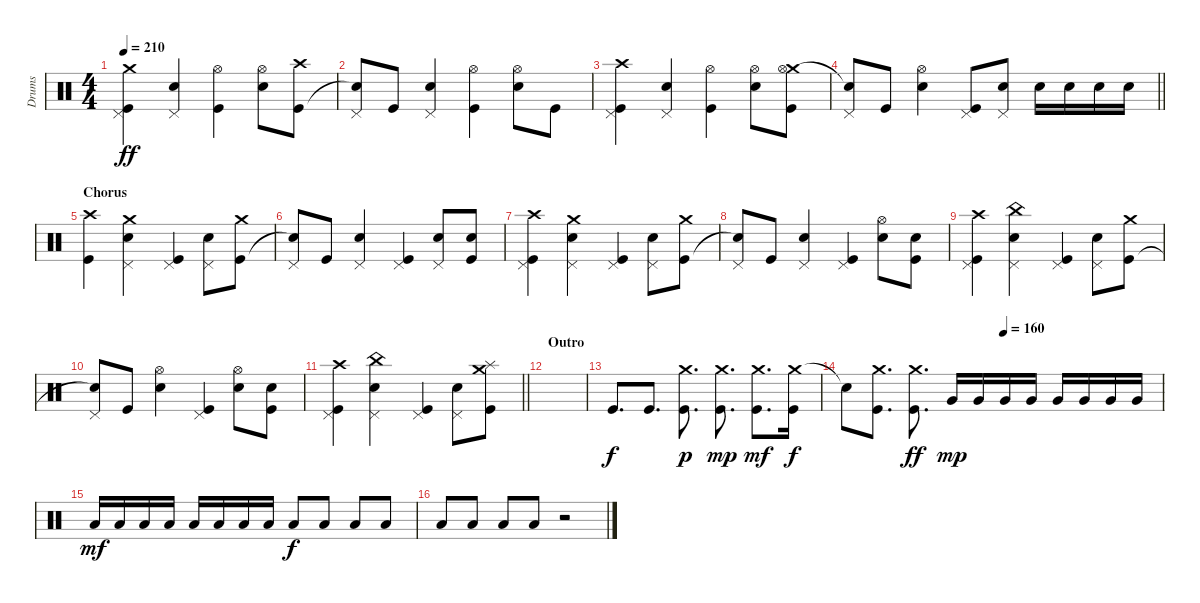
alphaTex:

\track ("Drums" "Drums") {instrument percussion}
\staff {score}
\articulation defaults
\ts (4 4)
\tempo 210
\clef neutral
\ks c
("Crash medium (hit)" "Pedal Hi-Hat (hit)" "Kick (hit)").4{dy ff} ("Electric Snare (hit)" "Pedal Hi-Hat (hit)").4 ("Hi-Hat (open)" "Kick (hit)").4 ("Electric Snare (hit)" "Hi-Hat (open)").8 ("Crash high (hit)" "Kick (hit)").8 |
("Pedal Hi-Hat (hit)" "Snare (hit)"{t}).8 "Kick (hit)".8 ("Electric Snare (hit)" "Pedal Hi-Hat (hit)").4 ("Hi-Hat (open)" "Kick (hit)").4 ("Electric Snare (hit)" "Hi-Hat (open)").8 "Kick (hit)".8 |
("Crash high (hit)" "Pedal Hi-Hat (hit)" "Kick (hit)").4 ("Electric Snare (hit)" "Pedal Hi-Hat (hit)").4 ("Hi-Hat (open)" "Kick (hit)").4 ("Electric Snare (hit)" "Hi-Hat (open)").8 ("Crash medium (hit)" "Hi-Hat (open)" "Kick (hit)").8 |
\barLineRight lightlight
("Pedal Hi-Hat (hit)" "Snare (hit)"{t}).8 "Kick (hit)".8 ("Electric Snare (hit)" "Hi-Hat (open)").4 ("Pedal Hi-Hat (hit)" "Kick (hit)").8 ("Electric Snare (hit)" "Pedal Hi-Hat (hit)").8 "Electric Snare (hit)".16 "Electric Snare (hit)".16 "Electric Snare (hit)".16 "Electric Snare (hit)".16 |
\section ("" "Chorus")
("Crash high (hit)" "Kick (hit)").4 ("Crash medium (hit)" "Electric Snare (hit)" "Pedal Hi-Hat (hit)").4 ("Pedal Hi-Hat (hit)" "Kick (hit)").4 ("Electric Snare (hit)" "Pedal Hi-Hat (hit)").8 ("Crash medium (hit)" "Kick (hit)").8 |
("Pedal Hi-Hat (hit)" "Snare (hit)"{t}).8 "Kick (hit)".8 ("Electric Snare (hit)" "Pedal Hi-Hat (hit)").4 ("Pedal Hi-Hat (hit)" "Kick (hit)").4 ("Electric Snare (hit)" "Pedal Hi-Hat (hit)").8 ("Electric Snare (hit)" "Kick (hit)").8 |
("Crash high (hit)" "Pedal Hi-Hat (hit)" "Kick (hit)").4 ("Crash medium (hit)" "Electric Snare (hit)" "Pedal Hi-Hat (hit)").4 ("Pedal Hi-Hat (hit)" "Kick (hit)").4 ("Electric Snare (hit)" "Pedal Hi-Hat (hit)").8 ("Crash medium (hit)" "Kick (hit)").8 |
("Pedal Hi-Hat (hit)" "Snare (hit)"{t}).8 "Kick (hit)".8 ("Electric Snare (hit)" "Pedal Hi-Hat (hit)").4 ("Pedal Hi-Hat (hit)" "Kick (hit)").4 ("Electric Snare (hit)" "Hi-Hat (open)").8 ("Electric Snare (hit)" "Kick (hit)").8 |
("Crash high (hit)" "Pedal Hi-Hat (hit)" "Kick (hit)").4 ("China (hit)" "Electric Snare (hit)" "Pedal Hi-Hat (hit)").4 ("Pedal Hi-Hat (hit)" "Kick (hit)").4 ("Electric Snare (hit)" "Pedal Hi-Hat (hit)").8 ("Crash medium (hit)" "Kick (hit)").8 |
("Pedal Hi-Hat (hit)" "Snare (hit)"{t}).8 "Kick (hit)".8 ("Electric Snare (hit)" "Hi-Hat (open)").4 ("Pedal Hi-Hat (hit)" "Kick (hit)").4 ("Electric Snare (hit)" "Hi-Hat (open)").8 ("Electric Snare (hit)" "Kick (hit)").8 |
\barLineRight lightlight
("Crash high (hit)" "Pedal Hi-Hat (hit)" "Kick (hit)").4 ("China (hit)" "Electric Snare (hit)" "Pedal Hi-Hat (hit)").4 ("Pedal Hi-Hat (hit)" "Kick (hit)").4 ("Electric Snare (hit)" "Pedal Hi-Hat (hit)").8 ("Crash medium (hit)" "Splash (hit)" "Kick (hit)").8 |
\section ("" "Outro")
|
"Kick (hit)".8{d dy f} "Kick (hit)".8{d} ("Crash medium (hit)" "Kick (hit)").8{d dy p} ("Crash medium (hit)" "Kick (hit)").8{d dy mp} ("Crash medium (hit)" "Kick (hit)").8{d dy mf} ("Crash medium (hit)" "Kick (hit)").16{dy f} |
\tempo (160 0.5)
"Snare (hit)"{t}.8 ("Crash medium (hit)" "Kick (hit)").8{d} ("Crash medium (hit)" "Kick (hit)").8{d dy ff} "Very Low Tom (hit)".16{dy mp} "Very Low Tom (hit)".16 "Very Low Tom (hit)".16 "Very Low Tom (hit)".16 "Very Low Tom (hit)".16 "Very Low Tom (hit)".16 "Very Low Tom (hit)".16 "Very Low Tom (hit)".16 |
"Low Floor Tom (hit)".16{dy mf} "Low Floor Tom (hit)".16 "Low Floor Tom (hit)".16 "Low Floor Tom (hit)".16 "Low Floor Tom (hit)".16 "Low Floor Tom (hit)".16 "Low Floor Tom (hit)".16 "Low Floor Tom (hit)".16 "Low Tom (hit)".8{dy f} "Low Tom (hit)".8 "Low Tom (hit)".8 "Low Tom (hit)".8 |
"Low Tom (hit)".8 "Low Tom (hit)".8 "Low Tom (hit)".8 "Low Tom (hit)".8 r.2
